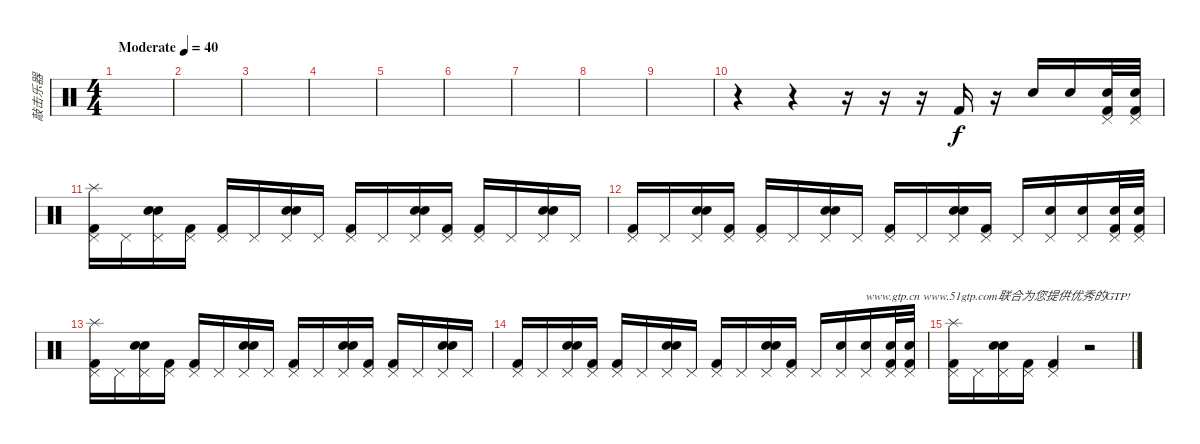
\track ("敲击乐器" "敲击乐器") {instrument percussion}
\staff {score}
\articulation defaults
\ts (4 4)
\tempo (40 "Moderate")
\clef neutral
\ks c
|
|
|
|
|
|
|
|
|
r.4 r.4 r.16 r.16 r.16 "Kick (hit) 2".16 r.16 "Electric Snare (hit)".16 "Snare (hit) 2".16 ("Pedal Hi-Hat (hit)" "Electric Snare (hit)" "Kick (hit) 2").32 ("Pedal Hi-Hat (hit)" "Electric Snare (hit)" "Kick (hit) 2").32 |
("Pedal Hi-Hat (hit)" "Kick (hit) 2" "Splash (hit)").16 "Pedal Hi-Hat (hit)".16 ("Pedal Hi-Hat (hit)" "Snare (hit) 2" "Electric Snare (hit)").16 ("Pedal Hi-Hat (hit)" "Kick (hit) 2").16 ("Pedal Hi-Hat (hit)" "Kick (hit) 2").16 "Pedal Hi-Hat (hit)".16 ("Pedal Hi-Hat (hit)" "Snare (hit) 2" "Electric Snare (hit)").16 "Pedal Hi-Hat (hit)".16 ("Pedal Hi-Hat (hit)" "Kick (hit) 2").16 "Pedal Hi-Hat (hit)".16 ("Pedal Hi-Hat (hit)" "Snare (hit) 2" "Electric Snare (hit)").16 ("Pedal Hi-Hat (hit)" "Kick (hit) 2").16 ("Pedal Hi-Hat (hit)" "Kick (hit) 2").16 "Pedal Hi-Hat (hit)".16 ("Pedal Hi-Hat (hit)" "Snare (hit) 2" "Electric Snare (hit)").16 "Pedal Hi-Hat (hit)".16 |
("Pedal Hi-Hat (hit)" "Kick (hit) 2").16 "Pedal Hi-Hat (hit)".16 ("Pedal Hi-Hat (hit)" "Snare (hit) 2" "Electric Snare (hit)").16 ("Pedal Hi-Hat (hit)" "Kick (hit) 2").16 ("Pedal Hi-Hat (hit)" "Kick (hit) 2").16 "Pedal Hi-Hat (hit)".16 ("Pedal Hi-Hat (hit)" "Snare (hit) 2" "Electric Snare (hit)").16 "Pedal Hi-Hat (hit)".16 ("Pedal Hi-Hat (hit)" "Kick (hit) 2").16 "Pedal Hi-Hat (hit)".16 ("Pedal Hi-Hat (hit)" "Snare (hit) 2" "Electric Snare (hit)").16 ("Pedal Hi-Hat (hit)" "Kick (hit) 2").16 "Pedal Hi-Hat (hit)".16 ("Pedal Hi-Hat (hit)" "Electric Snare (hit)").16 ("Pedal Hi-Hat (hit)" "Snare (hit) 2").16 ("Pedal Hi-Hat (hit)" "Electric Snare (hit)" "Kick (hit) 2").32 ("Pedal Hi-Hat (hit)" "Electric Snare (hit)" "Kick (hit) 2").32 |
("Pedal Hi-Hat (hit)" "Kick (hit) 2" "Splash (hit)").16 "Pedal Hi-Hat (hit)".16 ("Pedal Hi-Hat (hit)" "Snare (hit) 2" "Electric Snare (hit)").16 ("Pedal Hi-Hat (hit)" "Kick (hit) 2").16 ("Pedal Hi-Hat (hit)" "Kick (hit) 2").16 "Pedal Hi-Hat (hit)".16 ("Pedal Hi-Hat (hit)" "Snare (hit) 2" "Electric Snare (hit)").16 "Pedal Hi-Hat (hit)".16 ("Pedal Hi-Hat (hit)" "Kick (hit) 2").16 "Pedal Hi-Hat (hit)".16 ("Pedal Hi-Hat (hit)" "Snare (hit) 2" "Electric Snare (hit)").16 ("Pedal Hi-Hat (hit)" "Kick (hit) 2").16 ("Pedal Hi-Hat (hit)" "Kick (hit) 2").16 "Pedal Hi-Hat (hit)".16 ("Pedal Hi-Hat (hit)" "Snare (hit) 2" "Electric Snare (hit)").16 "Pedal Hi-Hat (hit)".16 |
("Pedal Hi-Hat (hit)" "Kick (hit) 2").16 "Pedal Hi-Hat (hit)".16 ("Pedal Hi-Hat (hit)" "Snare (hit) 2" "Electric Snare (hit)").16 ("Pedal Hi-Hat (hit)" "Kick (hit) 2").16 ("Pedal Hi-Hat (hit)" "Kick (hit) 2").16 "Pedal Hi-Hat (hit)".16 ("Pedal Hi-Hat (hit)" "Snare (hit) 2" "Electric Snare (hit)").16 "Pedal Hi-Hat (hit)".16 ("Pedal Hi-Hat (hit)" "Kick (hit) 2").16 "Pedal Hi-Hat (hit)".16 ("Pedal Hi-Hat (hit)" "Snare (hit) 2" "Electric Snare (hit)").16 ("Pedal Hi-Hat (hit)" "Kick (hit) 2").16 "Pedal Hi-Hat (hit)".16 ("Pedal Hi-Hat (hit)" "Electric Snare (hit)").16 ("Pedal Hi-Hat (hit)" "Snare (hit) 2").16{txt "www.gtp.cn www.51gtp.com联合为您提供优秀的GTP!"} ("Pedal Hi-Hat (hit)" "Electric Snare (hit)" "Kick (hit) 2").32 ("Pedal Hi-Hat (hit)" "Electric Snare (hit)" "Kick (hit) 2").32 |
("Pedal Hi-Hat (hit)" "Kick (hit) 2" "Splash (hit)").16 "Pedal Hi-Hat (hit)".16 ("Pedal Hi-Hat (hit)" "Snare (hit) 2" "Electric Snare (hit)").16 ("Pedal Hi-Hat (hit)" "Kick (hit) 2").16 ("Pedal Hi-Hat (hit)" "Kick (hit) 2").4 r.2
